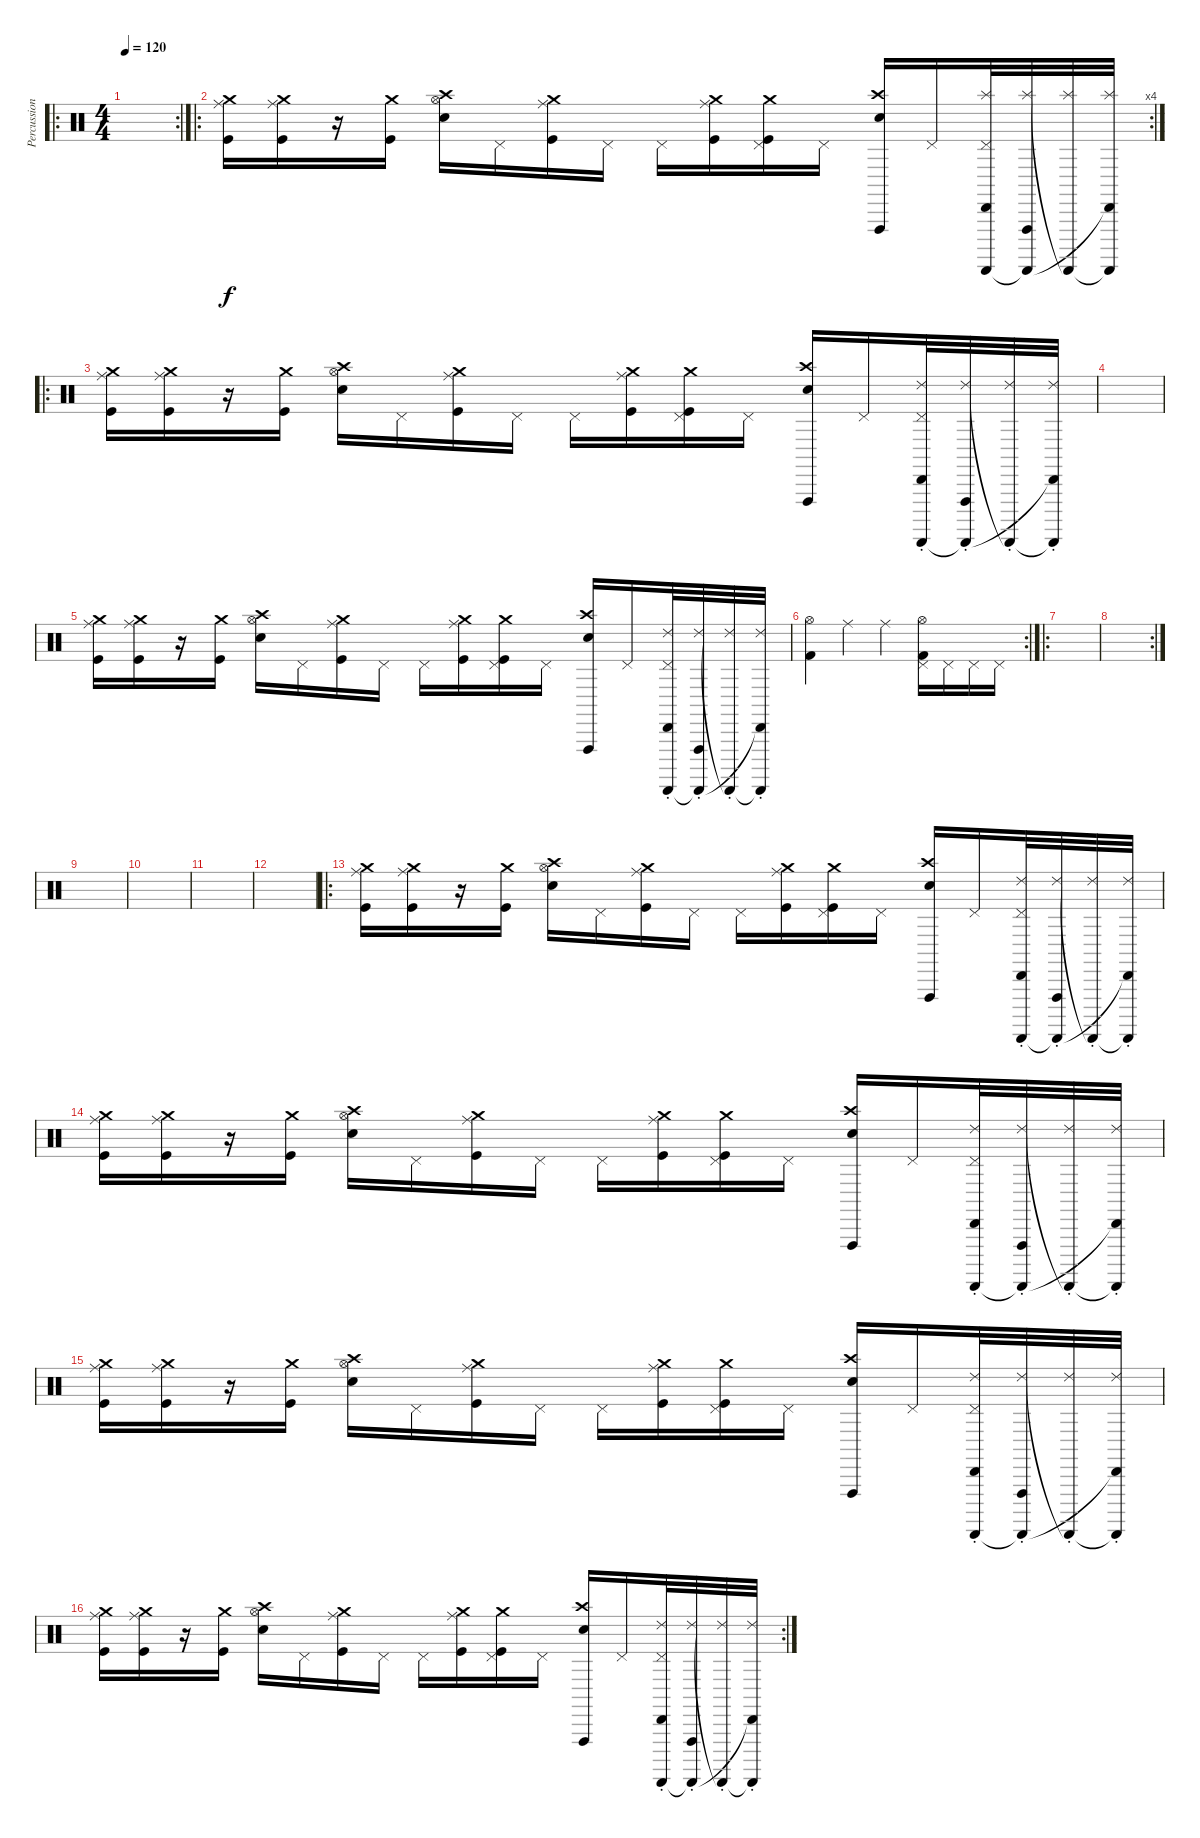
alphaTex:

\track ("Percussions" "Percussion") {instrument percussion}
\staff {score}
\articulation defaults
\ro
\rc 2
\ts (4 4)
\tempo 120
\clef neutral
\ks c
|
\ro
\rc 4
("Ride (middle)" "Crash medium (hit)" "Kick (hit)").16 ("Ride (middle)" "Crash medium (hit)" "Kick (hit)").16 r.16 ("Crash medium (hit)" "Kick (hit)").16 ("Crash high (hit)" "Electric Snare (hit)" "Hi-Hat (open)").16 "Pedal Hi-Hat (hit)".16 ("Ride (middle)" "Crash medium (hit)" "Kick (hit)").16 "Pedal Hi-Hat (hit)".16 "Pedal Hi-Hat (hit)".16 ("Ride (middle)" "Crash medium (hit)" "Kick (hit)").16 ("Pedal Hi-Hat (hit)" "Crash medium (hit)" "Kick (hit)").16 "Pedal Hi-Hat (hit)".16 ("Vibraslap (hit)" "Electric Snare (hit)" "Crash high (hit)").16 "Pedal Hi-Hat (hit)".16 ("Pedal Hi-Hat (hit)" "Splash (hit)" "Guiro (scrap-return)" "Cabasa (hit)").32 ("Vibraslap (hit)" "Splash (hit)" "Guiro (scrap-return)"{t}).32 ("Splash (hit)" "Guiro (scrap-return)"{t}).32 ("Splash (hit)" "Guiro (scrap-return)"{t} "Cabasa (hit)"{t}).32 |
\ro
("Ride (middle)" "Crash medium (hit)" "Kick (hit)").16 ("Ride (middle)" "Crash medium (hit)" "Kick (hit)").16 r.16 ("Crash medium (hit)" "Kick (hit)").16 ("Crash high (hit)" "Electric Snare (hit)" "Hi-Hat (open)").16 "Pedal Hi-Hat (hit)".16 ("Ride (middle)" "Crash medium (hit)" "Kick (hit)").16 "Pedal Hi-Hat (hit)".16 "Pedal Hi-Hat (hit)".16 ("Ride (middle)" "Crash medium (hit)" "Kick (hit)").16 ("Pedal Hi-Hat (hit)" "Crash medium (hit)" "Kick (hit)").16 "Pedal Hi-Hat (hit)".16 ("Vibraslap (hit)" "Electric Snare (hit)" "Crash high (hit)").16 "Pedal Hi-Hat (hit)".16 ("Pedal Hi-Hat (hit)" "Ride (choke) 2" "Guiro (scrap-return)" "Cabasa (hit)").32 ("Vibraslap (hit)" "Ride (choke) 2" "Guiro (scrap-return)"{t}).32 ("Ride (choke) 2" "Guiro (scrap-return)"{t}).32 ("Ride (choke) 2" "Guiro (scrap-return)"{t} "Cabasa (hit)"{t}).32 |
|
("Ride (middle)" "Crash medium (hit)" "Kick (hit)").16 ("Ride (middle)" "Crash medium (hit)" "Kick (hit)").16 r.16 ("Crash medium (hit)" "Kick (hit)").16 ("Crash high (hit)" "Electric Snare (hit)" "Hi-Hat (open)").16 "Pedal Hi-Hat (hit)".16 ("Ride (middle)" "Crash medium (hit)" "Kick (hit)").16 "Pedal Hi-Hat (hit)".16 "Pedal Hi-Hat (hit)".16 ("Ride (middle)" "Crash medium (hit)" "Kick (hit)").16 ("Pedal Hi-Hat (hit)" "Crash medium (hit)" "Kick (hit)").16 "Pedal Hi-Hat (hit)".16 ("Vibraslap (hit)" "Electric Snare (hit)" "Crash high (hit)").16 "Pedal Hi-Hat (hit)".16 ("Pedal Hi-Hat (hit)" "Ride (choke) 2" "Guiro (scrap-return)" "Cabasa (hit)").32 ("Vibraslap (hit)" "Ride (choke) 2" "Guiro (scrap-return)"{t}).32 ("Ride (choke) 2" "Guiro (scrap-return)"{t}).32 ("Ride (choke) 2" "Guiro (scrap-return)"{t} "Cabasa (hit)"{t}).32 |
\rc 2
("Hi-Hat (open)" "Kick (hit) 2").4 "Ride (middle)".4 "Ride (middle)".4 ("Hi-Hat (open)" "Pedal Hi-Hat (hit)" "Kick (hit) 2").16 "Pedal Hi-Hat (hit)".16 "Pedal Hi-Hat (hit)".16 "Pedal Hi-Hat (hit)".16 |
\ro
|
\rc 2
|
|
|
|
|
\ro
("Ride (middle)" "Crash medium (hit)" "Kick (hit)").16 ("Ride (middle)" "Crash medium (hit)" "Kick (hit)").16 r.16 ("Crash medium (hit)" "Kick (hit)").16 ("Crash high (hit)" "Electric Snare (hit)" "Hi-Hat (open)").16 "Pedal Hi-Hat (hit)".16 ("Ride (middle)" "Crash medium (hit)" "Kick (hit)").16 "Pedal Hi-Hat (hit)".16 "Pedal Hi-Hat (hit)".16 ("Ride (middle)" "Crash medium (hit)" "Kick (hit)").16 ("Pedal Hi-Hat (hit)" "Crash medium (hit)" "Kick (hit)").16 "Pedal Hi-Hat (hit)".16 ("Vibraslap (hit)" "Electric Snare (hit)" "Crash high (hit)").16 "Pedal Hi-Hat (hit)".16 ("Pedal Hi-Hat (hit)" "Ride (choke) 2" "Guiro (scrap-return)" "Cabasa (hit)").32 ("Vibraslap (hit)" "Ride (choke) 2" "Guiro (scrap-return)"{t}).32 ("Ride (choke) 2" "Guiro (scrap-return)"{t}).32 ("Ride (choke) 2" "Guiro (scrap-return)"{t} "Cabasa (hit)"{t}).32 |
("Ride (middle)" "Crash medium (hit)" "Kick (hit)").16 ("Ride (middle)" "Crash medium (hit)" "Kick (hit)").16 r.16 ("Crash medium (hit)" "Kick (hit)").16 ("Crash high (hit)" "Electric Snare (hit)" "Hi-Hat (open)").16 "Pedal Hi-Hat (hit)".16 ("Ride (middle)" "Crash medium (hit)" "Kick (hit)").16 "Pedal Hi-Hat (hit)".16 "Pedal Hi-Hat (hit)".16 ("Ride (middle)" "Crash medium (hit)" "Kick (hit)").16 ("Pedal Hi-Hat (hit)" "Crash medium (hit)" "Kick (hit)").16 "Pedal Hi-Hat (hit)".16 ("Vibraslap (hit)" "Electric Snare (hit)" "Crash high (hit)").16 "Pedal Hi-Hat (hit)".16 ("Pedal Hi-Hat (hit)" "Ride (choke) 2" "Guiro (scrap-return)" "Cabasa (hit)").32 ("Vibraslap (hit)" "Ride (choke) 2" "Guiro (scrap-return)"{t}).32 ("Ride (choke) 2" "Guiro (scrap-return)"{t}).32 ("Ride (choke) 2" "Guiro (scrap-return)"{t} "Cabasa (hit)"{t}).32 |
("Ride (middle)" "Crash medium (hit)" "Kick (hit)").16 ("Ride (middle)" "Crash medium (hit)" "Kick (hit)").16 r.16 ("Crash medium (hit)" "Kick (hit)").16 ("Crash high (hit)" "Electric Snare (hit)" "Hi-Hat (open)").16 "Pedal Hi-Hat (hit)".16 ("Ride (middle)" "Crash medium (hit)" "Kick (hit)").16 "Pedal Hi-Hat (hit)".16 "Pedal Hi-Hat (hit)".16 ("Ride (middle)" "Crash medium (hit)" "Kick (hit)").16 ("Pedal Hi-Hat (hit)" "Crash medium (hit)" "Kick (hit)").16 "Pedal Hi-Hat (hit)".16 ("Vibraslap (hit)" "Electric Snare (hit)" "Crash high (hit)").16 "Pedal Hi-Hat (hit)".16 ("Pedal Hi-Hat (hit)" "Ride (choke) 2" "Guiro (scrap-return)" "Cabasa (hit)").32 ("Vibraslap (hit)" "Ride (choke) 2" "Guiro (scrap-return)"{t}).32 ("Ride (choke) 2" "Guiro (scrap-return)"{t}).32 ("Ride (choke) 2" "Guiro (scrap-return)"{t} "Cabasa (hit)"{t}).32 |
\rc 2
("Ride (middle)" "Crash medium (hit)" "Kick (hit)").16 ("Ride (middle)" "Crash medium (hit)" "Kick (hit)").16 r.16 ("Crash medium (hit)" "Kick (hit)").16 ("Crash high (hit)" "Electric Snare (hit)" "Hi-Hat (open)").16 "Pedal Hi-Hat (hit)".16 ("Ride (middle)" "Crash medium (hit)" "Kick (hit)").16 "Pedal Hi-Hat (hit)".16 "Pedal Hi-Hat (hit)".16 ("Ride (middle)" "Crash medium (hit)" "Kick (hit)").16 ("Pedal Hi-Hat (hit)" "Crash medium (hit)" "Kick (hit)").16 "Pedal Hi-Hat (hit)".16 ("Vibraslap (hit)" "Electric Snare (hit)" "Crash high (hit)").16 "Pedal Hi-Hat (hit)".16 ("Pedal Hi-Hat (hit)" "Ride (choke) 2" "Guiro (scrap-return)" "Cabasa (hit)").32 ("Vibraslap (hit)" "Ride (choke) 2" "Guiro (scrap-return)"{t}).32 ("Ride (choke) 2" "Guiro (scrap-return)"{t}).32 ("Ride (choke) 2" "Guiro (scrap-return)"{t} "Cabasa (hit)"{t}).32
